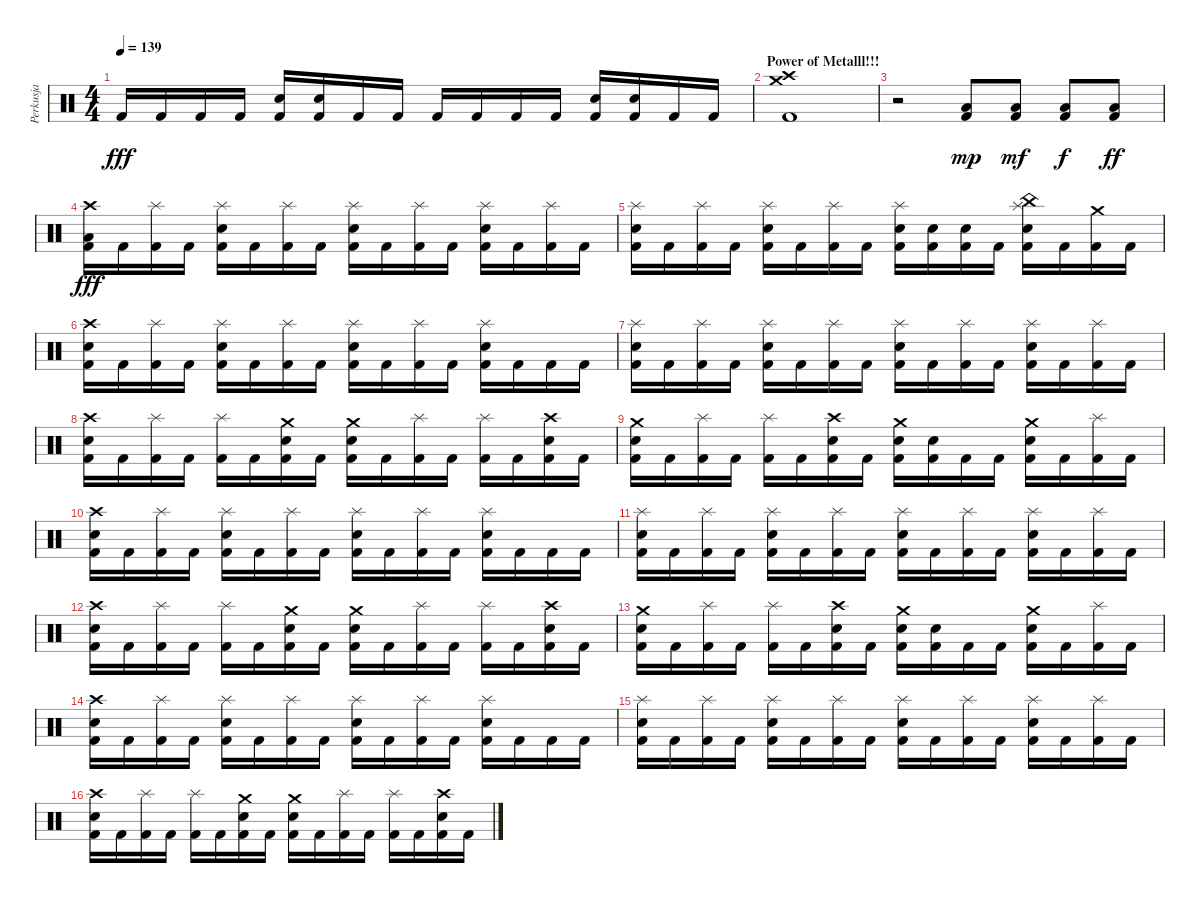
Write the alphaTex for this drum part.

\track ("Perkusja" "Perkusja") {instrument percussion}
\staff {score}
\articulation defaults
\ts (4 4)
\tempo 139
\clef neutral
\ks c "Kick (hit) 2".16{dy fff} "Kick (hit) 2".16 "Kick (hit) 2".16 "Kick (hit) 2".16
("Snare (hit) 2" "Kick (hit) 2").16 ("Snare (hit) 2" "Kick (hit) 2").16 "Kick (hit) 2".16 "Kick (hit) 2".16 "Kick (hit) 2".16 "Kick (hit) 2".16 "Kick (hit) 2".16 "Kick (hit) 2".16 ("Snare (hit) 2" "Kick (hit) 2").16 ("Snare (hit) 2" "Kick (hit) 2").16 "Kick (hit) 2".16 "Kick (hit) 2".16 |
\section ("" "Power of Metalll!!!")
("Crash high (hit)" "Crash medium (hit)" "Kick (hit) 2").1 |
r.2 ("Low Floor Tom (hit)" "Kick (hit) 2").8{dy mp} ("Low Floor Tom (hit)" "Kick (hit) 2").8{dy mf} ("Low Floor Tom (hit)" "Kick (hit) 2").8{dy f} ("Low Floor Tom (hit)" "Kick (hit) 2").8{dy ff} |
("Crash high (hit)" "Low Floor Tom (hit)" "Kick (hit) 2").16{dy fff} "Kick (hit) 2".16 ("Splash (hit)" "Kick (hit) 2").16 "Kick (hit) 2".16 ("Splash (hit)" "Snare (hit) 2" "Kick (hit) 2").16 "Kick (hit) 2".16 ("Splash (hit)" "Kick (hit) 2").16 "Kick (hit) 2".16 ("Splash (hit)" "Snare (hit) 2" "Kick (hit) 2").16 "Kick (hit) 2".16 ("Splash (hit)" "Kick (hit) 2").16 "Kick (hit) 2".16 ("Splash (hit)" "Snare (hit) 2" "Kick (hit) 2").16 "Kick (hit) 2".16 ("Splash (hit)" "Kick (hit) 2").16 "Kick (hit) 2".16 |
("Splash (hit)" "Snare (hit) 2" "Kick (hit) 2").16 "Kick (hit) 2".16 ("Splash (hit)" "Kick (hit) 2").16 "Kick (hit) 2".16 ("Splash (hit)" "Snare (hit) 2" "Kick (hit) 2").16 "Kick (hit) 2".16 ("Splash (hit)" "Kick (hit) 2").16 "Kick (hit) 2".16 ("Splash (hit)" "Snare (hit) 2" "Kick (hit) 2").16 ("Snare (hit) 2" "Kick (hit) 2").16 ("Snare (hit) 2" "Kick (hit) 2").16 "Kick (hit) 2".16 ("Splash (hit)" "China (hit)" "Snare (hit) 2" "Kick (hit) 2").16 "Kick (hit) 2".16 ("Crash medium (hit)" "Kick (hit) 2").16 "Kick (hit) 2".16 |
("Crash high (hit)" "Snare (hit) 2" "Kick (hit) 2").16 "Kick (hit) 2".16 ("Splash (hit)" "Kick (hit) 2").16 "Kick (hit) 2".16 ("Splash (hit)" "Snare (hit) 2" "Kick (hit) 2").16 "Kick (hit) 2".16 ("Splash (hit)" "Kick (hit) 2").16 "Kick (hit) 2".16 ("Splash (hit)" "Snare (hit) 2" "Kick (hit) 2").16 "Kick (hit) 2".16 ("Splash (hit)" "Kick (hit) 2").16 "Kick (hit) 2".16 ("Splash (hit)" "Snare (hit) 2" "Kick (hit) 2").16 "Kick (hit) 2".16 "Kick (hit) 2".16 "Kick (hit) 2".16 |
("Splash (hit)" "Snare (hit) 2" "Kick (hit) 2").16 "Kick (hit) 2".16 ("Splash (hit)" "Kick (hit) 2").16 "Kick (hit) 2".16 ("Splash (hit)" "Snare (hit) 2" "Kick (hit) 2").16 "Kick (hit) 2".16 ("Splash (hit)" "Kick (hit) 2").16 "Kick (hit) 2".16 ("Splash (hit)" "Snare (hit) 2" "Kick (hit) 2").16 "Kick (hit) 2".16 ("Splash (hit)" "Kick (hit) 2").16 "Kick (hit) 2".16 ("Splash (hit)" "Snare (hit) 2" "Kick (hit) 2").16 "Kick (hit) 2".16 ("Splash (hit)" "Kick (hit) 2").16 "Kick (hit) 2".16 |
("Crash high (hit)" "Snare (hit) 2" "Kick (hit) 2").16 "Kick (hit) 2".16 ("Splash (hit)" "Kick (hit) 2").16 "Kick (hit) 2".16 ("Splash (hit)" "Kick (hit) 2").16 "Kick (hit) 2".16 ("Crash medium (hit)" "Snare (hit) 2" "Kick (hit) 2").16 "Kick (hit) 2".16 ("Crash medium (hit)" "Snare (hit) 2" "Kick (hit) 2").16 "Kick (hit) 2".16 ("Splash (hit)" "Kick (hit) 2").16 "Kick (hit) 2".16 ("Splash (hit)" "Kick (hit) 2").16 "Kick (hit) 2".16 ("Crash high (hit)" "Snare (hit) 2" "Kick (hit) 2").16 "Kick (hit) 2".16 |
("Crash medium (hit)" "Snare (hit) 2" "Kick (hit) 2").16 "Kick (hit) 2".16 ("Splash (hit)" "Kick (hit) 2").16 "Kick (hit) 2".16 ("Splash (hit)" "Kick (hit) 2").16 "Kick (hit) 2".16 ("Crash high (hit)" "Snare (hit) 2" "Kick (hit) 2").16 "Kick (hit) 2".16 ("Crash medium (hit)" "Snare (hit) 2" "Kick (hit) 2").16 ("Snare (hit) 2" "Kick (hit) 2").16 "Kick (hit) 2".16 "Kick (hit) 2".16 ("Crash medium (hit)" "Snare (hit) 2" "Kick (hit) 2").16 "Kick (hit) 2".16 ("Splash (hit)" "Kick (hit) 2").16 "Kick (hit) 2".16 |
("Crash high (hit)" "Snare (hit) 2" "Kick (hit) 2").16 "Kick (hit) 2".16 ("Splash (hit)" "Kick (hit) 2").16 "Kick (hit) 2".16 ("Splash (hit)" "Snare (hit) 2" "Kick (hit) 2").16 "Kick (hit) 2".16 ("Splash (hit)" "Kick (hit) 2").16 "Kick (hit) 2".16 ("Splash (hit)" "Snare (hit) 2" "Kick (hit) 2").16 "Kick (hit) 2".16 ("Splash (hit)" "Kick (hit) 2").16 "Kick (hit) 2".16 ("Splash (hit)" "Snare (hit) 2" "Kick (hit) 2").16 "Kick (hit) 2".16 "Kick (hit) 2".16 "Kick (hit) 2".16 |
("Splash (hit)" "Snare (hit) 2" "Kick (hit) 2").16 "Kick (hit) 2".16 ("Splash (hit)" "Kick (hit) 2").16 "Kick (hit) 2".16 ("Splash (hit)" "Snare (hit) 2" "Kick (hit) 2").16 "Kick (hit) 2".16 ("Splash (hit)" "Kick (hit) 2").16 "Kick (hit) 2".16 ("Splash (hit)" "Snare (hit) 2" "Kick (hit) 2").16 "Kick (hit) 2".16 ("Splash (hit)" "Kick (hit) 2").16 "Kick (hit) 2".16 ("Splash (hit)" "Snare (hit) 2" "Kick (hit) 2").16 "Kick (hit) 2".16 ("Splash (hit)" "Kick (hit) 2").16 "Kick (hit) 2".16 |
("Crash high (hit)" "Snare (hit) 2" "Kick (hit) 2").16 "Kick (hit) 2".16 ("Splash (hit)" "Kick (hit) 2").16 "Kick (hit) 2".16 ("Splash (hit)" "Kick (hit) 2").16 "Kick (hit) 2".16 ("Crash medium (hit)" "Snare (hit) 2" "Kick (hit) 2").16 "Kick (hit) 2".16 ("Crash medium (hit)" "Snare (hit) 2" "Kick (hit) 2").16 "Kick (hit) 2".16 ("Splash (hit)" "Kick (hit) 2").16 "Kick (hit) 2".16 ("Splash (hit)" "Kick (hit) 2").16 "Kick (hit) 2".16 ("Crash high (hit)" "Snare (hit) 2" "Kick (hit) 2").16 "Kick (hit) 2".16 |
("Crash medium (hit)" "Snare (hit) 2" "Kick (hit) 2").16 "Kick (hit) 2".16 ("Splash (hit)" "Kick (hit) 2").16 "Kick (hit) 2".16 ("Splash (hit)" "Kick (hit) 2").16 "Kick (hit) 2".16 ("Crash high (hit)" "Snare (hit) 2" "Kick (hit) 2").16 "Kick (hit) 2".16 ("Crash medium (hit)" "Snare (hit) 2" "Kick (hit) 2").16 ("Snare (hit) 2" "Kick (hit) 2").16 "Kick (hit) 2".16 "Kick (hit) 2".16 ("Crash medium (hit)" "Snare (hit) 2" "Kick (hit) 2").16 "Kick (hit) 2".16 ("Splash (hit)" "Kick (hit) 2").16 "Kick (hit) 2".16 |
("Crash high (hit)" "Snare (hit) 2" "Kick (hit) 2").16 "Kick (hit) 2".16 ("Splash (hit)" "Kick (hit) 2").16 "Kick (hit) 2".16 ("Splash (hit)" "Snare (hit) 2" "Kick (hit) 2").16 "Kick (hit) 2".16 ("Splash (hit)" "Kick (hit) 2").16 "Kick (hit) 2".16 ("Splash (hit)" "Snare (hit) 2" "Kick (hit) 2").16 "Kick (hit) 2".16 ("Splash (hit)" "Kick (hit) 2").16 "Kick (hit) 2".16 ("Splash (hit)" "Snare (hit) 2" "Kick (hit) 2").16 "Kick (hit) 2".16 "Kick (hit) 2".16 "Kick (hit) 2".16 |
("Splash (hit)" "Snare (hit) 2" "Kick (hit) 2").16 "Kick (hit) 2".16 ("Splash (hit)" "Kick (hit) 2").16 "Kick (hit) 2".16 ("Splash (hit)" "Snare (hit) 2" "Kick (hit) 2").16 "Kick (hit) 2".16 ("Splash (hit)" "Kick (hit) 2").16 "Kick (hit) 2".16 ("Splash (hit)" "Snare (hit) 2" "Kick (hit) 2").16 "Kick (hit) 2".16 ("Splash (hit)" "Kick (hit) 2").16 "Kick (hit) 2".16 ("Splash (hit)" "Snare (hit) 2" "Kick (hit) 2").16 "Kick (hit) 2".16 ("Splash (hit)" "Kick (hit) 2").16 "Kick (hit) 2".16 |
("Crash high (hit)" "Snare (hit) 2" "Kick (hit) 2").16 "Kick (hit) 2".16 ("Splash (hit)" "Kick (hit) 2").16 "Kick (hit) 2".16 ("Splash (hit)" "Kick (hit) 2").16 "Kick (hit) 2".16 ("Crash medium (hit)" "Snare (hit) 2" "Kick (hit) 2").16 "Kick (hit) 2".16 ("Crash medium (hit)" "Snare (hit) 2" "Kick (hit) 2").16 "Kick (hit) 2".16 ("Splash (hit)" "Kick (hit) 2").16 "Kick (hit) 2".16 ("Splash (hit)" "Kick (hit) 2").16 "Kick (hit) 2".16 ("Crash high (hit)" "Snare (hit) 2" "Kick (hit) 2").16 "Kick (hit) 2".16
